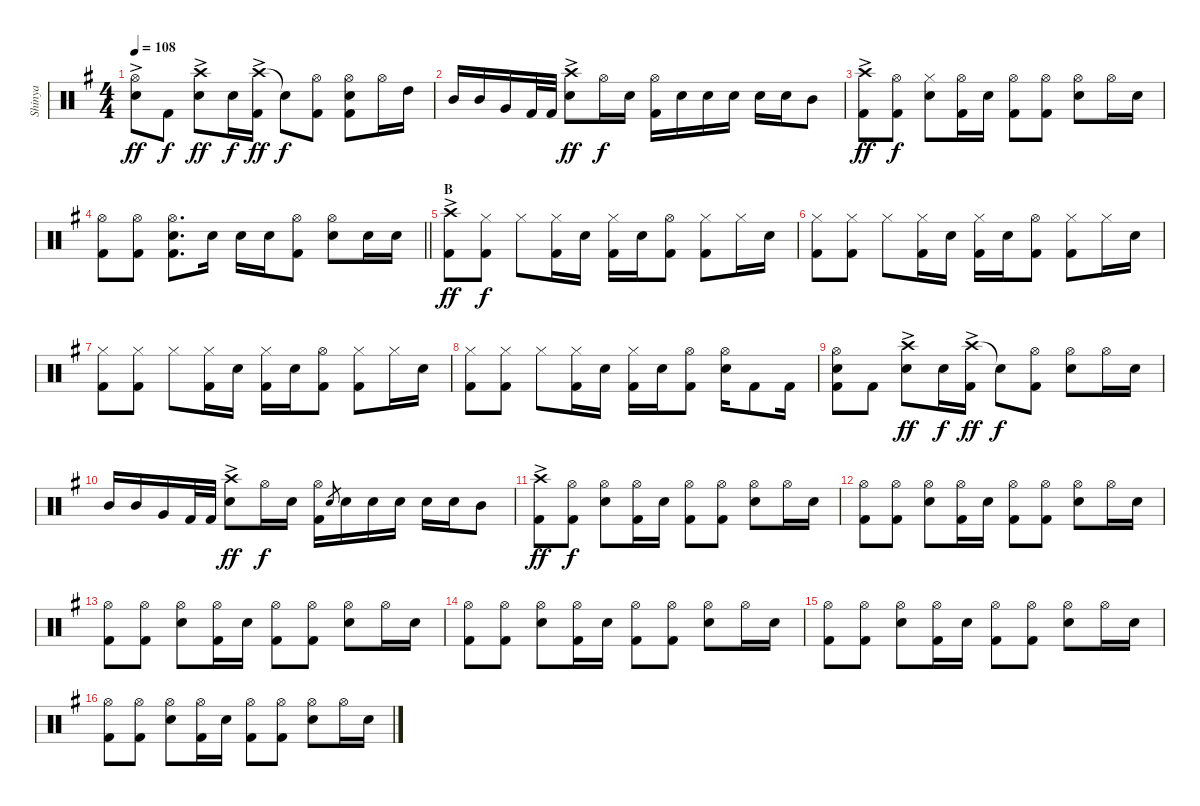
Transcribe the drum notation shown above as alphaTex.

\track ("Shinya" "Shinya") {instrument percussion}
\staff {score}
\articulation defaults
\ts (4 4)
\tempo 108
\clef neutral
\ks eminor
("Hi-Hat (open)"{ac} "Snare (hit) 2").8{dy ff} "Kick (hit) 2".8{dy f} ("Crash high (hit)"{ac} "Snare (hit) 2").8{dy ff} "Snare (hit) 2".16{dy f} ("Crash high (hit)"{ac} "Kick (hit) 2").16{dy ff} "Snare (hit)"{t}.8{dy f} ("Hi-Hat (open)" "Kick (hit) 2").8 ("Hi-Hat (open)" "Snare (hit) 2" "Kick (hit) 2").8 "Hi-Hat (open)".16 "High Tom (hit)".16 |
"Mid Tom (hit)".16 "Mid Tom (hit)".16 "Very Low Tom (hit)".16 "Kick (hit) 2".32 "Kick (hit) 2".32 ("Crash high (hit)"{ac} "Snare (hit) 2").8{dy ff} "Hi-Hat (open)".16{dy f} "Snare (hit) 2".16 ("Hi-Hat (open)" "Kick (hit) 2").16 "Snare (hit) 2".16 "Snare (hit) 2".16 "Snare (hit) 2".16 "Snare (hit) 2".16 "Snare (hit) 2".16 "Mid Tom (hit)".8 |
("Crash high (hit)"{ac} "Kick (hit) 2").8{dy ff} ("Hi-Hat (open)" "Kick (hit) 2").8{dy f} ("Hi-Hat (closed)" "Snare (hit) 2").8 ("Hi-Hat (open)" "Kick (hit) 2").16 "Snare (hit) 2".16 ("Hi-Hat (open)" "Kick (hit) 2").8 ("Hi-Hat (open)" "Kick (hit) 2").8 ("Hi-Hat (open)" "Snare (hit) 2").8 "Hi-Hat (open)".16 "Snare (hit) 2".16 |
\barLineRight lightlight
("Hi-Hat (open)" "Kick (hit) 2").8 ("Hi-Hat (open)" "Kick (hit) 2").8 ("Hi-Hat (open)" "Snare (hit) 2" "Kick (hit) 2").8{d} "Snare (hit) 2".16 "Snare (hit) 2".16 "Snare (hit) 2".16 ("Hi-Hat (open)" "Kick (hit) 2").8 ("Hi-Hat (open)" "Snare (hit) 2").8 "Snare (hit) 2".16 "Snare (hit) 2".16 |
\section ("" "B")
("Crash high (hit)"{ac} "Kick (hit) 2").8{dy ff} ("Hi-Hat (closed)" "Kick (hit) 2").8{dy f} "Hi-Hat (closed)".8 ("Hi-Hat (closed)" "Kick (hit) 2").16 "Snare (hit) 2".16 ("Hi-Hat (closed)" "Kick (hit) 2").16 "Snare (hit) 2".16 ("Hi-Hat (open)" "Kick (hit) 2").8 ("Hi-Hat (closed)" "Kick (hit) 2").8 "Hi-Hat (closed)".16 "Snare (hit) 2".16 |
("Hi-Hat (closed)" "Kick (hit) 2").8 ("Hi-Hat (closed)" "Kick (hit) 2").8 "Hi-Hat (closed)".8 ("Hi-Hat (closed)" "Kick (hit) 2").16 "Snare (hit) 2".16 ("Hi-Hat (closed)" "Kick (hit) 2").16 "Snare (hit) 2".16 ("Hi-Hat (open)" "Kick (hit) 2").8 ("Hi-Hat (closed)" "Kick (hit) 2").8 "Hi-Hat (closed)".16 "Snare (hit) 2".16 |
("Hi-Hat (closed)" "Kick (hit) 2").8 ("Hi-Hat (closed)" "Kick (hit) 2").8 "Hi-Hat (closed)".8 ("Hi-Hat (closed)" "Kick (hit) 2").16 "Snare (hit) 2".16 ("Hi-Hat (closed)" "Kick (hit) 2").16 "Snare (hit) 2".16 ("Hi-Hat (open)" "Kick (hit) 2").8 ("Hi-Hat (closed)" "Kick (hit) 2").8 "Hi-Hat (closed)".16 "Snare (hit) 2".16 |
("Hi-Hat (closed)" "Kick (hit) 2").8 ("Hi-Hat (closed)" "Kick (hit) 2").8 "Hi-Hat (closed)".8 ("Hi-Hat (closed)" "Kick (hit) 2").16 "Snare (hit) 2".16 ("Hi-Hat (closed)" "Kick (hit) 2").16 "Snare (hit) 2".16 ("Hi-Hat (open)" "Kick (hit) 2").8 ("Hi-Hat (open)" "Snare (hit) 2").16 "Kick (hit) 2".8 "Kick (hit) 2".16 |
("Hi-Hat (open)" "Snare (hit) 2" "Kick (hit) 2").8 "Kick (hit) 2".8 ("Crash high (hit)"{ac} "Snare (hit) 2").8{dy ff} "Snare (hit) 2".16{dy f} ("Crash high (hit)"{ac} "Kick (hit) 2").16{dy ff} "Snare (hit)"{t}.8{dy f} ("Hi-Hat (open)" "Kick (hit) 2").8 ("Hi-Hat (open)" "Snare (hit) 2").8 "Hi-Hat (open)".16 "Snare (hit) 2".16 |
"Mid Tom (hit)".16 "Mid Tom (hit)".16 "Very Low Tom (hit)".16 "Kick (hit) 2".32 "Kick (hit) 2".32 ("Crash high (hit)"{ac} "Snare (hit) 2").8{dy ff} "Hi-Hat (open)".16{dy f} "Snare (hit) 2".16 ("Hi-Hat (open)" "Kick (hit) 2").16 "Snare (hit) 2".8{gr} "Snare (hit) 2".16 "Snare (hit) 2".16 "Snare (hit) 2".16 "Snare (hit) 2".16 "Snare (hit) 2".16 "Mid Tom (hit)".8 |
("Crash high (hit)"{ac} "Kick (hit) 2").8{dy ff} ("Hi-Hat (open)" "Kick (hit) 2").8{dy f} ("Hi-Hat (open)" "Snare (hit) 2").8 ("Hi-Hat (open)" "Kick (hit) 2").16 "Snare (hit) 2".16 ("Hi-Hat (open)" "Kick (hit) 2").8 ("Hi-Hat (open)" "Kick (hit) 2").8 ("Hi-Hat (open)" "Snare (hit) 2").8 "Hi-Hat (open)".16 "Snare (hit) 2".16 |
("Hi-Hat (open)" "Kick (hit) 2").8 ("Hi-Hat (open)" "Kick (hit) 2").8 ("Hi-Hat (open)" "Snare (hit) 2").8 ("Hi-Hat (open)" "Kick (hit) 2").16 "Snare (hit) 2".16 ("Hi-Hat (open)" "Kick (hit) 2").8 ("Hi-Hat (open)" "Kick (hit) 2").8 ("Hi-Hat (open)" "Snare (hit) 2").8 "Hi-Hat (open)".16 "Snare (hit) 2".16 |
("Hi-Hat (open)" "Kick (hit) 2").8 ("Hi-Hat (open)" "Kick (hit) 2").8 ("Hi-Hat (open)" "Snare (hit) 2").8 ("Hi-Hat (open)" "Kick (hit) 2").16 "Snare (hit) 2".16 ("Hi-Hat (open)" "Kick (hit) 2").8 ("Hi-Hat (open)" "Kick (hit) 2").8 ("Hi-Hat (open)" "Snare (hit) 2").8 "Hi-Hat (open)".16 "Snare (hit) 2".16 |
("Hi-Hat (open)" "Kick (hit) 2").8 ("Hi-Hat (open)" "Kick (hit) 2").8 ("Hi-Hat (open)" "Snare (hit) 2").8 ("Hi-Hat (open)" "Kick (hit) 2").16 "Snare (hit) 2".16 ("Hi-Hat (open)" "Kick (hit) 2").8 ("Hi-Hat (open)" "Kick (hit) 2").8 ("Hi-Hat (open)" "Snare (hit) 2").8 "Hi-Hat (open)".16 "Snare (hit) 2".16 |
("Hi-Hat (open)" "Kick (hit) 2").8 ("Hi-Hat (open)" "Kick (hit) 2").8 ("Hi-Hat (open)" "Snare (hit) 2").8 ("Hi-Hat (open)" "Kick (hit) 2").16 "Snare (hit) 2".16 ("Hi-Hat (open)" "Kick (hit) 2").8 ("Hi-Hat (open)" "Kick (hit) 2").8 ("Hi-Hat (open)" "Snare (hit) 2").8 "Hi-Hat (open)".16 "Snare (hit) 2".16 |
("Hi-Hat (open)" "Kick (hit) 2").8 ("Hi-Hat (open)" "Kick (hit) 2").8 ("Hi-Hat (open)" "Snare (hit) 2").8 ("Hi-Hat (open)" "Kick (hit) 2").16 "Snare (hit) 2".16 ("Hi-Hat (open)" "Kick (hit) 2").8 ("Hi-Hat (open)" "Kick (hit) 2").8 ("Hi-Hat (open)" "Snare (hit) 2").8 "Hi-Hat (open)".16 "Snare (hit) 2".16
